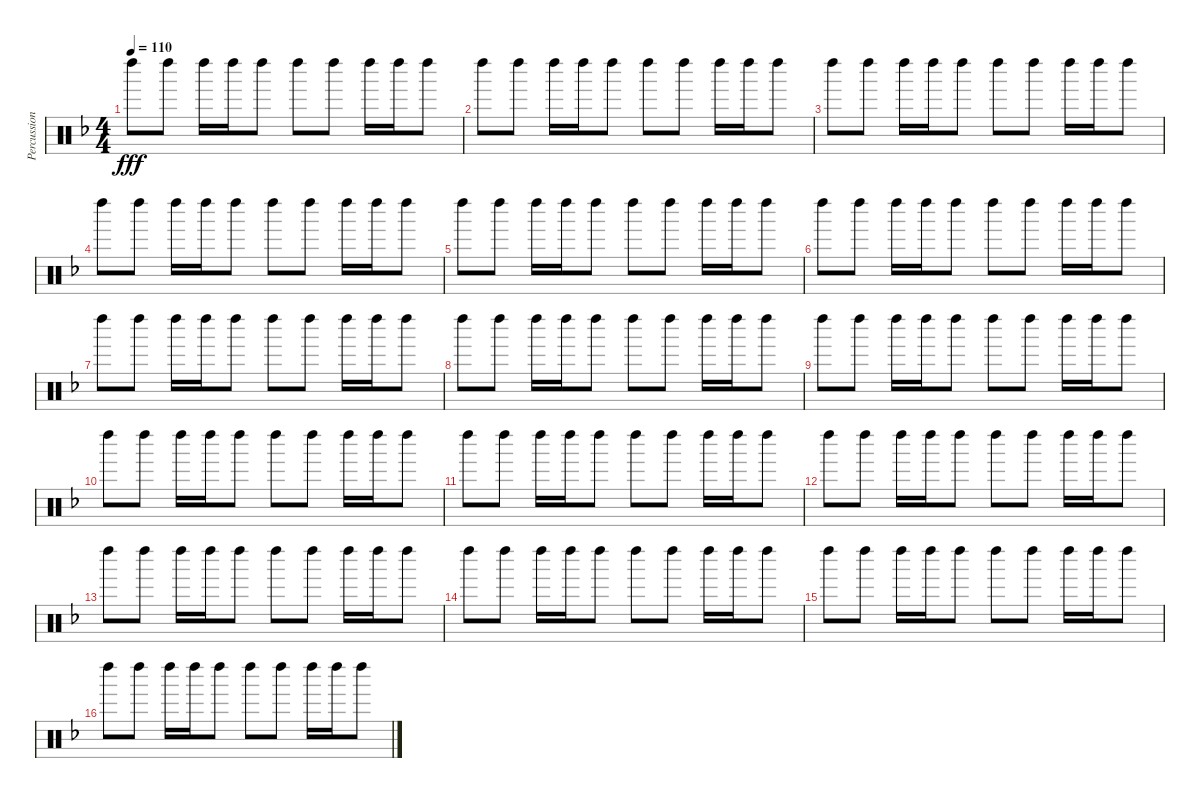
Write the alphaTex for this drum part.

\track ("Percussions" "Percussion") {instrument percussion}
\staff {score}
\articulation defaults
\ts (4 4)
\tempo 110
\clef neutral
\ks f "Left Maraca (hit)".8{dy fff} "Left Maraca (hit)".8 "Left Maraca (hit)".16 "Left Maraca (hit)".16 "Left Maraca (hit)".8 "Left Maraca (hit)".8 "Left Maraca (hit)".8 "Left Maraca (hit)".16 "Left Maraca (hit)".16 "Left Maraca (hit)".8
|
"Left Maraca (hit)".8 "Left Maraca (hit)".8 "Left Maraca (hit)".16 "Left Maraca (hit)".16 "Left Maraca (hit)".8 "Left Maraca (hit)".8 "Left Maraca (hit)".8 "Left Maraca (hit)".16 "Left Maraca (hit)".16 "Left Maraca (hit)".8 |
"Left Maraca (hit)".8 "Left Maraca (hit)".8 "Left Maraca (hit)".16 "Left Maraca (hit)".16 "Left Maraca (hit)".8 "Left Maraca (hit)".8 "Left Maraca (hit)".8 "Left Maraca (hit)".16 "Left Maraca (hit)".16 "Left Maraca (hit)".8 |
"Left Maraca (hit)".8 "Left Maraca (hit)".8 "Left Maraca (hit)".16 "Left Maraca (hit)".16 "Left Maraca (hit)".8 "Left Maraca (hit)".8 "Left Maraca (hit)".8 "Left Maraca (hit)".16 "Left Maraca (hit)".16 "Left Maraca (hit)".8 |
"Left Maraca (hit)".8 "Left Maraca (hit)".8 "Left Maraca (hit)".16 "Left Maraca (hit)".16 "Left Maraca (hit)".8 "Left Maraca (hit)".8 "Left Maraca (hit)".8 "Left Maraca (hit)".16 "Left Maraca (hit)".16 "Left Maraca (hit)".8 |
"Left Maraca (hit)".8 "Left Maraca (hit)".8 "Left Maraca (hit)".16 "Left Maraca (hit)".16 "Left Maraca (hit)".8 "Left Maraca (hit)".8 "Left Maraca (hit)".8 "Left Maraca (hit)".16 "Left Maraca (hit)".16 "Left Maraca (hit)".8 |
"Left Maraca (hit)".8 "Left Maraca (hit)".8 "Left Maraca (hit)".16 "Left Maraca (hit)".16 "Left Maraca (hit)".8 "Left Maraca (hit)".8 "Left Maraca (hit)".8 "Left Maraca (hit)".16 "Left Maraca (hit)".16 "Left Maraca (hit)".8 |
"Left Maraca (hit)".8 "Left Maraca (hit)".8 "Left Maraca (hit)".16 "Left Maraca (hit)".16 "Left Maraca (hit)".8 "Left Maraca (hit)".8 "Left Maraca (hit)".8 "Left Maraca (hit)".16 "Left Maraca (hit)".16 "Left Maraca (hit)".8 |
"Left Maraca (hit)".8 "Left Maraca (hit)".8 "Left Maraca (hit)".16 "Left Maraca (hit)".16 "Left Maraca (hit)".8 "Left Maraca (hit)".8 "Left Maraca (hit)".8 "Left Maraca (hit)".16 "Left Maraca (hit)".16 "Left Maraca (hit)".8 |
"Left Maraca (hit)".8 "Left Maraca (hit)".8 "Left Maraca (hit)".16 "Left Maraca (hit)".16 "Left Maraca (hit)".8 "Left Maraca (hit)".8 "Left Maraca (hit)".8 "Left Maraca (hit)".16 "Left Maraca (hit)".16 "Left Maraca (hit)".8 |
"Left Maraca (hit)".8 "Left Maraca (hit)".8 "Left Maraca (hit)".16 "Left Maraca (hit)".16 "Left Maraca (hit)".8 "Left Maraca (hit)".8 "Left Maraca (hit)".8 "Left Maraca (hit)".16 "Left Maraca (hit)".16 "Left Maraca (hit)".8 |
"Left Maraca (hit)".8 "Left Maraca (hit)".8 "Left Maraca (hit)".16 "Left Maraca (hit)".16 "Left Maraca (hit)".8 "Left Maraca (hit)".8 "Left Maraca (hit)".8 "Left Maraca (hit)".16 "Left Maraca (hit)".16 "Left Maraca (hit)".8 |
"Left Maraca (hit)".8 "Left Maraca (hit)".8 "Left Maraca (hit)".16 "Left Maraca (hit)".16 "Left Maraca (hit)".8 "Left Maraca (hit)".8 "Left Maraca (hit)".8 "Left Maraca (hit)".16 "Left Maraca (hit)".16 "Left Maraca (hit)".8 |
"Left Maraca (hit)".8 "Left Maraca (hit)".8 "Left Maraca (hit)".16 "Left Maraca (hit)".16 "Left Maraca (hit)".8 "Left Maraca (hit)".8 "Left Maraca (hit)".8 "Left Maraca (hit)".16 "Left Maraca (hit)".16 "Left Maraca (hit)".8 |
"Left Maraca (hit)".8 "Left Maraca (hit)".8 "Left Maraca (hit)".16 "Left Maraca (hit)".16 "Left Maraca (hit)".8 "Left Maraca (hit)".8 "Left Maraca (hit)".8 "Left Maraca (hit)".16 "Left Maraca (hit)".16 "Left Maraca (hit)".8 |
"Left Maraca (hit)".8 "Left Maraca (hit)".8 "Left Maraca (hit)".16 "Left Maraca (hit)".16 "Left Maraca (hit)".8 "Left Maraca (hit)".8 "Left Maraca (hit)".8 "Left Maraca (hit)".16 "Left Maraca (hit)".16 "Left Maraca (hit)".8
